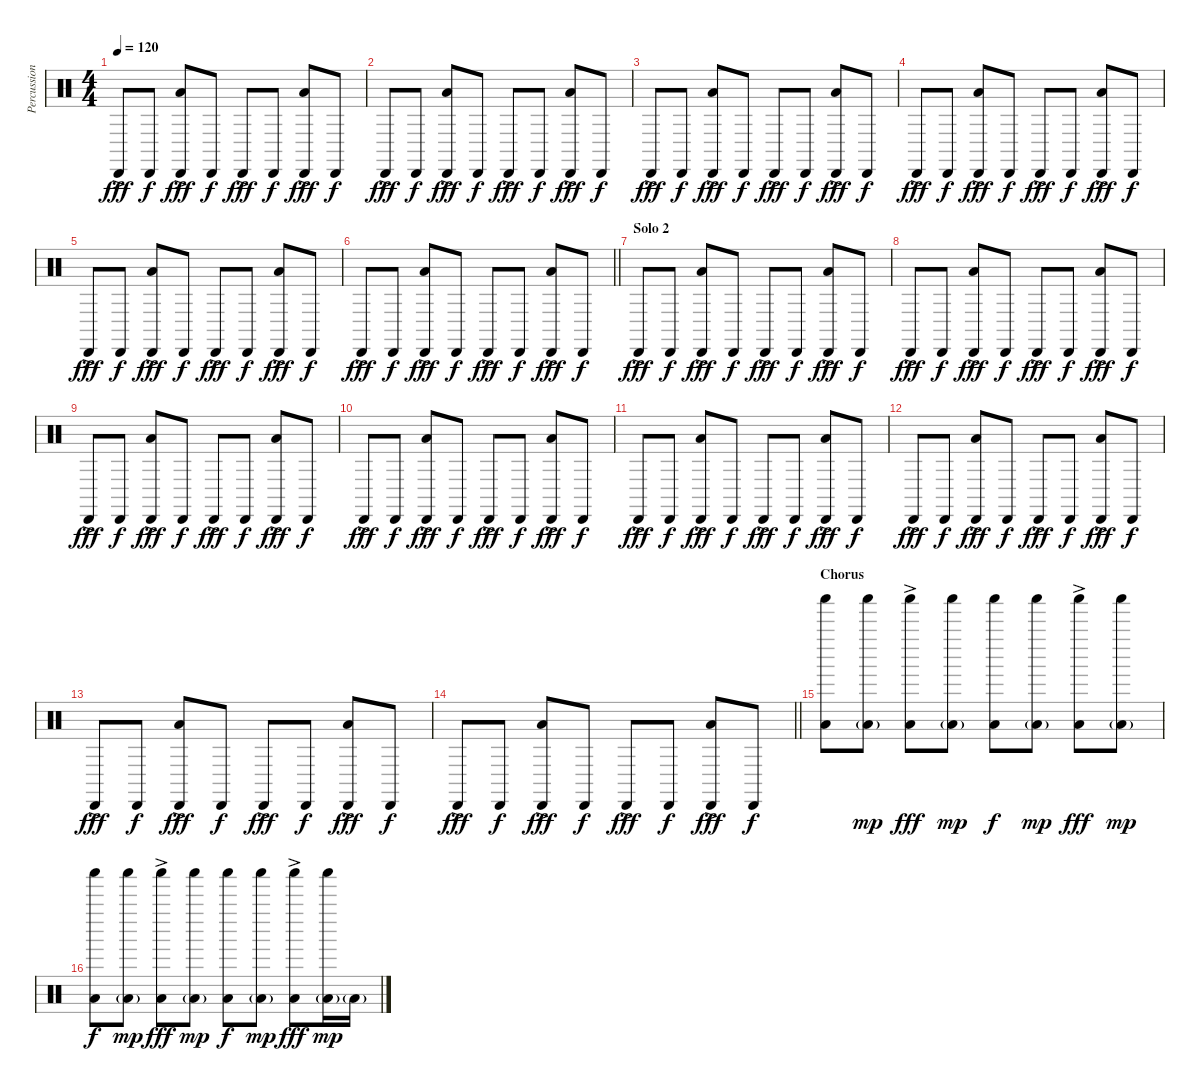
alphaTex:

\track ("Percussion" "Percussion") {instrument percussion}
\staff {score}
\articulation defaults
\ts (4 4)
\tempo 120
\clef neutral
\ks c "Cabasa (hit)"{ac}.8{dy fff} "Cabasa (hit)".8{dy f}
("Cabasa (hit)"{ac} "Low Tom (hit)").8{dy fff} "Cabasa (hit)".8{dy f} "Cabasa (hit)"{ac}.8{dy fff} "Cabasa (hit)".8{dy f} ("Cabasa (hit)"{ac} "Low Tom (hit)").8{dy fff} "Cabasa (hit)".8{dy f} |
"Cabasa (hit)"{ac}.8{dy fff} "Cabasa (hit)".8{dy f} ("Cabasa (hit)"{ac} "Low Tom (hit)").8{dy fff} "Cabasa (hit)".8{dy f} "Cabasa (hit)"{ac}.8{dy fff} "Cabasa (hit)".8{dy f} ("Cabasa (hit)"{ac} "Low Tom (hit)").8{dy fff} "Cabasa (hit)".8{dy f} |
"Cabasa (hit)"{ac}.8{dy fff} "Cabasa (hit)".8{dy f} ("Cabasa (hit)"{ac} "Low Tom (hit)").8{dy fff} "Cabasa (hit)".8{dy f} "Cabasa (hit)"{ac}.8{dy fff} "Cabasa (hit)".8{dy f} ("Cabasa (hit)"{ac} "Low Tom (hit)").8{dy fff} "Cabasa (hit)".8{dy f} |
"Cabasa (hit)"{ac}.8{dy fff} "Cabasa (hit)".8{dy f} ("Cabasa (hit)"{ac} "Low Tom (hit)").8{dy fff} "Cabasa (hit)".8{dy f} "Cabasa (hit)"{ac}.8{dy fff} "Cabasa (hit)".8{dy f} ("Cabasa (hit)"{ac} "Low Tom (hit)").8{dy fff} "Cabasa (hit)".8{dy f} |
"Cabasa (hit)"{ac}.8{dy fff} "Cabasa (hit)".8{dy f} ("Cabasa (hit)"{ac} "Low Tom (hit)").8{dy fff} "Cabasa (hit)".8{dy f} "Cabasa (hit)"{ac}.8{dy fff} "Cabasa (hit)".8{dy f} ("Cabasa (hit)"{ac} "Low Tom (hit)").8{dy fff} "Cabasa (hit)".8{dy f} |
\barLineRight lightlight "Cabasa (hit)"{ac}.8{dy fff} "Cabasa (hit)".8{dy f}
("Cabasa (hit)"{ac} "Low Tom (hit)").8{dy fff} "Cabasa (hit)".8{dy f} "Cabasa (hit)"{ac}.8{dy fff} "Cabasa (hit)".8{dy f} ("Cabasa (hit)"{ac} "Low Tom (hit)").8{dy fff} "Cabasa (hit)".8{dy f} |
\section ("" "Solo 2")
"Cabasa (hit)"{ac}.8{dy fff} "Cabasa (hit)".8{dy f} ("Cabasa (hit)"{ac} "Low Tom (hit)").8{dy fff} "Cabasa (hit)".8{dy f} "Cabasa (hit)"{ac}.8{dy fff} "Cabasa (hit)".8{dy f} ("Cabasa (hit)"{ac} "Low Tom (hit)").8{dy fff} "Cabasa (hit)".8{dy f} |
"Cabasa (hit)"{ac}.8{dy fff} "Cabasa (hit)".8{dy f} ("Cabasa (hit)"{ac} "Low Tom (hit)").8{dy fff} "Cabasa (hit)".8{dy f} "Cabasa (hit)"{ac}.8{dy fff} "Cabasa (hit)".8{dy f} ("Cabasa (hit)"{ac} "Low Tom (hit)").8{dy fff} "Cabasa (hit)".8{dy f} |
"Cabasa (hit)"{ac}.8{dy fff} "Cabasa (hit)".8{dy f} ("Cabasa (hit)"{ac} "Low Tom (hit)").8{dy fff} "Cabasa (hit)".8{dy f} "Cabasa (hit)"{ac}.8{dy fff} "Cabasa (hit)".8{dy f} ("Cabasa (hit)"{ac} "Low Tom (hit)").8{dy fff} "Cabasa (hit)".8{dy f} |
"Cabasa (hit)"{ac}.8{dy fff} "Cabasa (hit)".8{dy f} ("Cabasa (hit)"{ac} "Low Tom (hit)").8{dy fff} "Cabasa (hit)".8{dy f} "Cabasa (hit)"{ac}.8{dy fff} "Cabasa (hit)".8{dy f} ("Cabasa (hit)"{ac} "Low Tom (hit)").8{dy fff} "Cabasa (hit)".8{dy f} |
"Cabasa (hit)"{ac}.8{dy fff} "Cabasa (hit)".8{dy f} ("Cabasa (hit)"{ac} "Low Tom (hit)").8{dy fff} "Cabasa (hit)".8{dy f} "Cabasa (hit)"{ac}.8{dy fff} "Cabasa (hit)".8{dy f} ("Cabasa (hit)"{ac} "Low Tom (hit)").8{dy fff} "Cabasa (hit)".8{dy f} |
"Cabasa (hit)"{ac}.8{dy fff} "Cabasa (hit)".8{dy f} ("Cabasa (hit)"{ac} "Low Tom (hit)").8{dy fff} "Cabasa (hit)".8{dy f} "Cabasa (hit)"{ac}.8{dy fff} "Cabasa (hit)".8{dy f} ("Cabasa (hit)"{ac} "Low Tom (hit)").8{dy fff} "Cabasa (hit)".8{dy f} |
"Cabasa (hit)"{ac}.8{dy fff} "Cabasa (hit)".8{dy f} ("Cabasa (hit)"{ac} "Low Tom (hit)").8{dy fff} "Cabasa (hit)".8{dy f} "Cabasa (hit)"{ac}.8{dy fff} "Cabasa (hit)".8{dy f} ("Cabasa (hit)"{ac} "Low Tom (hit)").8{dy fff} "Cabasa (hit)".8{dy f} |
\barLineRight lightlight "Cabasa (hit)"{ac}.8{dy fff} "Cabasa (hit)".8{dy f}
("Cabasa (hit)"{ac} "Low Tom (hit)").8{dy fff} "Cabasa (hit)".8{dy f} "Cabasa (hit)"{ac}.8{dy fff} "Cabasa (hit)".8{dy f} ("Cabasa (hit)"{ac} "Low Tom (hit)").8{dy fff} "Cabasa (hit)".8{dy f} |
\section ("" "Chorus")
("Shaker (hit)" "Low Tom (hit)").8 ("Shaker (hit)" "Low Tom (hit)"{g}).8{dy mp} ("Shaker (hit)" "Low Tom (hit)"{ac}).8{dy fff} ("Shaker (hit)" "Low Tom (hit)"{g}).8{dy mp} ("Shaker (hit)" "Low Tom (hit)").8{dy f} ("Shaker (hit)" "Low Tom (hit)"{g}).8{dy mp} ("Shaker (hit)" "Low Tom (hit)"{ac}).8{dy fff} ("Shaker (hit)" "Low Tom (hit)"{g}).8{dy mp} |
("Shaker (hit)" "Low Tom (hit)").8{dy f} ("Shaker (hit)" "Low Tom (hit)"{g}).8{dy mp} ("Shaker (hit)" "Low Tom (hit)"{ac}).8{dy fff} ("Shaker (hit)" "Low Tom (hit)"{g}).8{dy mp} ("Shaker (hit)" "Low Tom (hit)").8{dy f} ("Shaker (hit)" "Low Tom (hit)"{g}).8{dy mp} ("Shaker (hit)" "Low Tom (hit)"{ac}).8{dy fff} ("Shaker (hit)" "Low Tom (hit)"{g}).16{dy mp} "Low Tom (hit)"{g}.16
